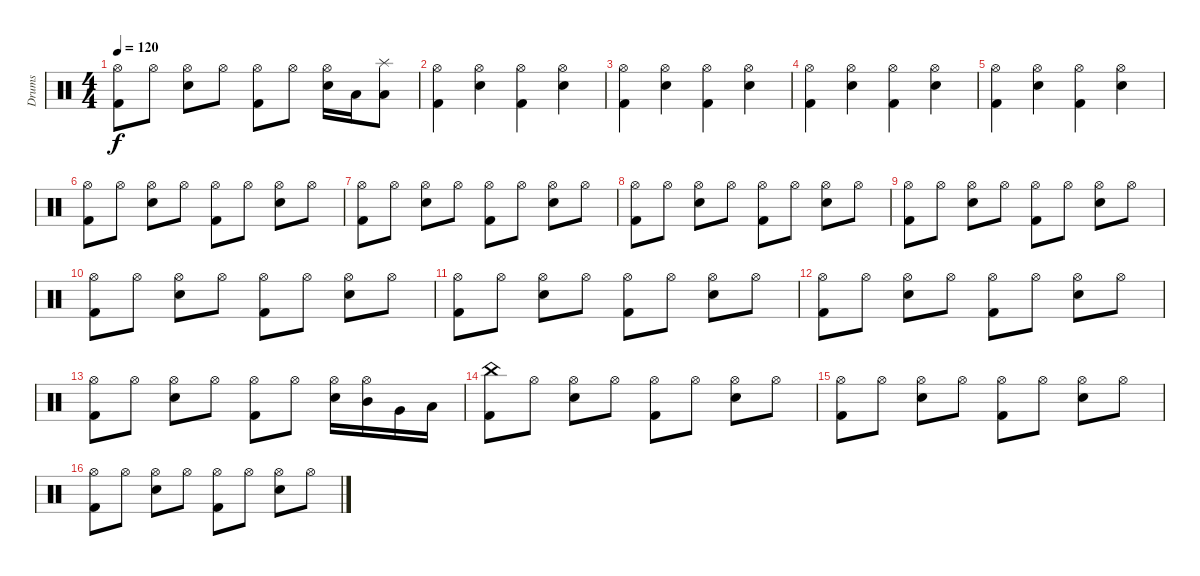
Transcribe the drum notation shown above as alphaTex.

\track ("Drums" "Drums") {instrument percussion}
\staff {score}
\articulation defaults
\ts (4 4)
\tempo 120
\clef neutral
\ks c
("Kick (hit) 2" "Hi-Hat (open)").8{dy f} "Hi-Hat (open)".8 ("Snare (hit) 2" "Hi-Hat (open)").8 "Hi-Hat (open)".8 ("Kick (hit) 2" "Hi-Hat (open)").8 "Hi-Hat (open)".8 ("Snare (hit) 2" "Hi-Hat (open)").16 "Low Tom (hit)".16 ("Low Floor Tom (hit)" "Splash (hit)").8 |
("Kick (hit) 2" "Hi-Hat (open)").4 ("Snare (hit) 2" "Hi-Hat (open)").4 ("Kick (hit) 2" "Hi-Hat (open)").4 ("Snare (hit) 2" "Hi-Hat (open)").4 |
("Kick (hit) 2" "Hi-Hat (open)").4 ("Snare (hit) 2" "Hi-Hat (open)").4 ("Kick (hit) 2" "Hi-Hat (open)").4 ("Snare (hit) 2" "Hi-Hat (open)").4 |
("Kick (hit) 2" "Hi-Hat (open)").4 ("Snare (hit) 2" "Hi-Hat (open)").4 ("Kick (hit) 2" "Hi-Hat (open)").4 ("Snare (hit) 2" "Hi-Hat (open)").4 |
("Kick (hit) 2" "Hi-Hat (open)").4 ("Snare (hit) 2" "Hi-Hat (open)").4 ("Kick (hit) 2" "Hi-Hat (open)").4 ("Snare (hit) 2" "Hi-Hat (open)").4 |
("Kick (hit) 2" "Hi-Hat (open)").8 "Hi-Hat (open)".8 ("Snare (hit) 2" "Hi-Hat (open)").8 "Hi-Hat (open)".8 ("Kick (hit) 2" "Hi-Hat (open)").8 "Hi-Hat (open)".8 ("Snare (hit) 2" "Hi-Hat (open)").8 "Hi-Hat (open)".8 |
("Kick (hit) 2" "Hi-Hat (open)").8 "Hi-Hat (open)".8 ("Snare (hit) 2" "Hi-Hat (open)").8 "Hi-Hat (open)".8 ("Kick (hit) 2" "Hi-Hat (open)").8 "Hi-Hat (open)".8 ("Snare (hit) 2" "Hi-Hat (open)").8 "Hi-Hat (open)".8 |
("Kick (hit) 2" "Hi-Hat (open)").8 "Hi-Hat (open)".8 ("Snare (hit) 2" "Hi-Hat (open)").8 "Hi-Hat (open)".8 ("Kick (hit) 2" "Hi-Hat (open)").8 "Hi-Hat (open)".8 ("Snare (hit) 2" "Hi-Hat (open)").8 "Hi-Hat (open)".8 |
("Kick (hit) 2" "Hi-Hat (open)").8 "Hi-Hat (open)".8 ("Snare (hit) 2" "Hi-Hat (open)").8 "Hi-Hat (open)".8 ("Kick (hit) 2" "Hi-Hat (open)").8 "Hi-Hat (open)".8 ("Snare (hit) 2" "Hi-Hat (open)").8 "Hi-Hat (open)".8 |
("Kick (hit) 2" "Hi-Hat (open)").8 "Hi-Hat (open)".8 ("Snare (hit) 2" "Hi-Hat (open)").8 "Hi-Hat (open)".8 ("Kick (hit) 2" "Hi-Hat (open)").8 "Hi-Hat (open)".8 ("Snare (hit) 2" "Hi-Hat (open)").8 "Hi-Hat (open)".8 |
("Kick (hit) 2" "Hi-Hat (open)").8 "Hi-Hat (open)".8 ("Snare (hit) 2" "Hi-Hat (open)").8 "Hi-Hat (open)".8 ("Kick (hit) 2" "Hi-Hat (open)").8 "Hi-Hat (open)".8 ("Snare (hit) 2" "Hi-Hat (open)").8 "Hi-Hat (open)".8 |
("Kick (hit) 2" "Hi-Hat (open)").8 "Hi-Hat (open)".8 ("Snare (hit) 2" "Hi-Hat (open)").8 "Hi-Hat (open)".8 ("Kick (hit) 2" "Hi-Hat (open)").8 "Hi-Hat (open)".8 ("Snare (hit) 2" "Hi-Hat (open)").8 "Hi-Hat (open)".8 |
("Kick (hit) 2" "Hi-Hat (open)").8 "Hi-Hat (open)".8 ("Snare (hit) 2" "Hi-Hat (open)").8 "Hi-Hat (open)".8 ("Kick (hit) 2" "Hi-Hat (open)").8 "Hi-Hat (open)".8 ("Snare (hit) 2" "Hi-Hat (open)").16 ("Mid Tom (hit)" "Hi-Hat (open)").16 "Very Low Tom (hit)".16 "Low Tom (hit)".16 |
("Kick (hit) 2" "China (hit)").8 "Hi-Hat (open)".8 ("Snare (hit) 2" "Hi-Hat (open)").8 "Hi-Hat (open)".8 ("Kick (hit) 2" "Hi-Hat (open)").8 "Hi-Hat (open)".8 ("Snare (hit) 2" "Hi-Hat (open)").8 "Hi-Hat (open)".8 |
("Kick (hit) 2" "Hi-Hat (open)").8 "Hi-Hat (open)".8 ("Snare (hit) 2" "Hi-Hat (open)").8 "Hi-Hat (open)".8 ("Kick (hit) 2" "Hi-Hat (open)").8 "Hi-Hat (open)".8 ("Snare (hit) 2" "Hi-Hat (open)").8 "Hi-Hat (open)".8 |
("Kick (hit) 2" "Hi-Hat (open)").8 "Hi-Hat (open)".8 ("Snare (hit) 2" "Hi-Hat (open)").8 "Hi-Hat (open)".8 ("Kick (hit) 2" "Hi-Hat (open)").8 "Hi-Hat (open)".8 ("Snare (hit) 2" "Hi-Hat (open)").8 "Hi-Hat (open)".8
